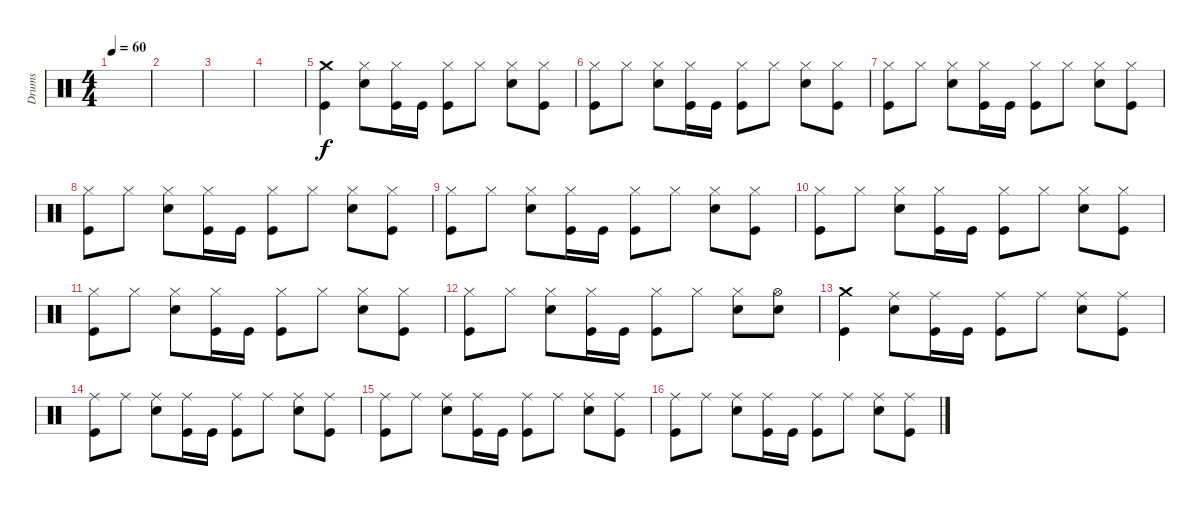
\track ("Drums" "Drums") {instrument percussion}
\staff {score}
\articulation defaults
\ts (4 4)
\tempo 60
\clef neutral
\ks c
|
|
|
|
("Crash medium (hit)" "Kick (hit)").4 ("Hi-Hat (closed)" "Snare (hit) 2").8 ("Hi-Hat (closed)" "Kick (hit)").16 "Kick (hit)".16 ("Hi-Hat (closed)" "Kick (hit)").8 "Hi-Hat (closed)".8 ("Hi-Hat (closed)" "Snare (hit) 2").8 ("Hi-Hat (closed)" "Kick (hit)").8 |
("Hi-Hat (closed)" "Kick (hit)").8 "Hi-Hat (closed)".8 ("Hi-Hat (closed)" "Snare (hit) 2").8 ("Hi-Hat (closed)" "Kick (hit)").16 "Kick (hit)".16 ("Hi-Hat (closed)" "Kick (hit)").8 "Hi-Hat (closed)".8 ("Hi-Hat (closed)" "Snare (hit) 2").8 ("Hi-Hat (closed)" "Kick (hit)").8 |
("Hi-Hat (closed)" "Kick (hit)").8 "Hi-Hat (closed)".8 ("Hi-Hat (closed)" "Snare (hit) 2").8 ("Hi-Hat (closed)" "Kick (hit)").16 "Kick (hit)".16 ("Hi-Hat (closed)" "Kick (hit)").8 "Hi-Hat (closed)".8 ("Hi-Hat (closed)" "Snare (hit) 2").8 ("Hi-Hat (closed)" "Kick (hit)").8 |
("Hi-Hat (closed)" "Kick (hit)").8 "Hi-Hat (closed)".8 ("Hi-Hat (closed)" "Snare (hit) 2").8 ("Hi-Hat (closed)" "Kick (hit)").16 "Kick (hit)".16 ("Hi-Hat (closed)" "Kick (hit)").8 "Hi-Hat (closed)".8 ("Hi-Hat (closed)" "Snare (hit) 2").8 ("Hi-Hat (closed)" "Kick (hit)").8 |
("Hi-Hat (closed)" "Kick (hit)").8 "Hi-Hat (closed)".8 ("Hi-Hat (closed)" "Snare (hit) 2").8 ("Hi-Hat (closed)" "Kick (hit)").16 "Kick (hit)".16 ("Hi-Hat (closed)" "Kick (hit)").8 "Hi-Hat (closed)".8 ("Hi-Hat (closed)" "Snare (hit) 2").8 ("Hi-Hat (closed)" "Kick (hit)").8 |
("Hi-Hat (closed)" "Kick (hit)").8 "Hi-Hat (closed)".8 ("Hi-Hat (closed)" "Snare (hit) 2").8 ("Hi-Hat (closed)" "Kick (hit)").16 "Kick (hit)".16 ("Hi-Hat (closed)" "Kick (hit)").8 "Hi-Hat (closed)".8 ("Hi-Hat (closed)" "Snare (hit) 2").8 ("Hi-Hat (closed)" "Kick (hit)").8 |
("Hi-Hat (closed)" "Kick (hit)").8 "Hi-Hat (closed)".8 ("Hi-Hat (closed)" "Snare (hit) 2").8 ("Hi-Hat (closed)" "Kick (hit)").16 "Kick (hit)".16 ("Hi-Hat (closed)" "Kick (hit)").8 "Hi-Hat (closed)".8 ("Hi-Hat (closed)" "Snare (hit) 2").8 ("Hi-Hat (closed)" "Kick (hit)").8 |
("Hi-Hat (closed)" "Kick (hit)").8 "Hi-Hat (closed)".8 ("Hi-Hat (closed)" "Snare (hit) 2").8 ("Hi-Hat (closed)" "Kick (hit)").16 "Kick (hit)".16 ("Hi-Hat (closed)" "Kick (hit)").8 "Hi-Hat (closed)".8 ("Hi-Hat (closed)" "Snare (hit) 2").8 ("Hi-Hat (open)" "Snare (hit) 2").8 |
("Crash medium (hit)" "Kick (hit)").4 ("Ride (middle)" "Snare (hit) 2").8 ("Ride (middle)" "Kick (hit)").16 "Kick (hit)".16 ("Ride (middle)" "Kick (hit)").8 "Ride (middle)".8 ("Ride (middle)" "Snare (hit) 2").8 ("Ride (middle)" "Kick (hit)").8 |
("Ride (middle)" "Kick (hit)").8 "Ride (middle)".8 ("Ride (middle)" "Snare (hit) 2").8 ("Ride (middle)" "Kick (hit)").16 "Kick (hit)".16 ("Ride (middle)" "Kick (hit)").8 "Ride (middle)".8 ("Ride (middle)" "Snare (hit) 2").8 ("Ride (middle)" "Kick (hit)").8 |
("Ride (middle)" "Kick (hit)").8 "Ride (middle)".8 ("Ride (middle)" "Snare (hit) 2").8 ("Ride (middle)" "Kick (hit)").16 "Kick (hit)".16 ("Ride (middle)" "Kick (hit)").8 "Ride (middle)".8 ("Ride (middle)" "Snare (hit) 2").8 ("Ride (middle)" "Kick (hit)").8 |
("Ride (middle)" "Kick (hit)").8 "Ride (middle)".8 ("Ride (middle)" "Snare (hit) 2").8 ("Ride (middle)" "Kick (hit)").16 "Kick (hit)".16 ("Ride (middle)" "Kick (hit)").8 "Ride (middle)".8 ("Ride (middle)" "Snare (hit) 2").8 ("Ride (middle)" "Kick (hit)").8
